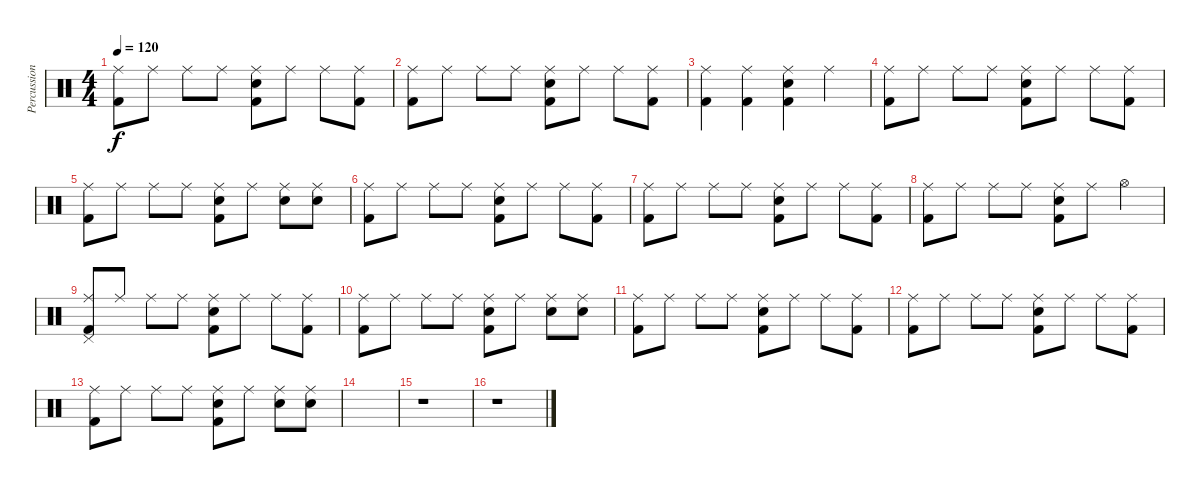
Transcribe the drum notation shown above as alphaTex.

\track ("Percussion" "Percussion") {instrument percussion}
\staff {score}
\articulation defaults
\ts (4 4)
\tempo 120
\clef neutral
\ks c
("Ride (middle)" "Kick (hit) 2").8{dy f} "Ride (middle)".8 "Ride (middle)".8 "Ride (middle)".8 ("Ride (middle)" "Snare (hit) 2" "Kick (hit) 2").8 "Ride (middle)".8 "Ride (middle)".8 ("Ride (middle)" "Kick (hit) 2").8 |
("Ride (middle)" "Kick (hit) 2").8 "Ride (middle)".8 "Ride (middle)".8 "Ride (middle)".8 ("Ride (middle)" "Snare (hit) 2" "Kick (hit) 2").8 "Ride (middle)".8 "Ride (middle)".8 ("Ride (middle)" "Kick (hit) 2").8 |
("Ride (middle)" "Kick (hit) 2").4 ("Ride (middle)" "Kick (hit) 2").4 ("Ride (middle)" "Snare (hit) 2" "Kick (hit) 2").4 "Ride (middle)".4 |
("Ride (middle)" "Kick (hit) 2").8 "Ride (middle)".8 "Ride (middle)".8 "Ride (middle)".8 ("Ride (middle)" "Snare (hit) 2" "Kick (hit) 2").8 "Ride (middle)".8 "Ride (middle)".8 ("Ride (middle)" "Kick (hit) 2").8 |
("Ride (middle)" "Kick (hit) 2").8 "Ride (middle)".8 "Ride (middle)".8 "Ride (middle)".8 ("Ride (middle)" "Snare (hit) 2" "Kick (hit) 2").8 "Ride (middle)".8 ("Ride (middle)" "Snare (hit) 2").8 ("Ride (middle)" "Snare (hit) 2").8 |
("Ride (middle)" "Kick (hit) 2").8 "Ride (middle)".8 "Ride (middle)".8 "Ride (middle)".8 ("Ride (middle)" "Snare (hit) 2" "Kick (hit) 2").8 "Ride (middle)".8 "Ride (middle)".8 ("Ride (middle)" "Kick (hit) 2").8 |
("Ride (middle)" "Kick (hit) 2").8 "Ride (middle)".8 "Ride (middle)".8 "Ride (middle)".8 ("Ride (middle)" "Snare (hit) 2" "Kick (hit) 2").8 "Ride (middle)".8 "Ride (middle)".8 ("Ride (middle)" "Kick (hit) 2").8 |
("Ride (middle)" "Kick (hit) 2").8 "Ride (middle)".8 "Ride (middle)".8 "Ride (middle)".8 ("Ride (middle)" "Snare (hit) 2" "Kick (hit) 2").8 "Ride (middle)".8 "Hi-Hat (open)".4 |
("Ride (middle)" "Pedal Hi-Hat (hit)" "Kick (hit) 2").8 "Ride (middle)".8 "Ride (middle)".8 "Ride (middle)".8 ("Ride (middle)" "Snare (hit) 2" "Kick (hit) 2").8 "Ride (middle)".8 "Ride (middle)".8 ("Ride (middle)" "Kick (hit) 2").8 |
("Ride (middle)" "Kick (hit) 2").8 "Ride (middle)".8 "Ride (middle)".8 "Ride (middle)".8 ("Ride (middle)" "Snare (hit) 2" "Kick (hit) 2").8 "Ride (middle)".8 ("Ride (middle)" "Snare (hit) 2").8 ("Ride (middle)" "Snare (hit) 2").8 |
("Ride (middle)" "Kick (hit) 2").8 "Ride (middle)".8 "Ride (middle)".8 "Ride (middle)".8 ("Ride (middle)" "Snare (hit) 2" "Kick (hit) 2").8 "Ride (middle)".8 "Ride (middle)".8 ("Ride (middle)" "Kick (hit) 2").8 |
("Ride (middle)" "Kick (hit) 2").8 "Ride (middle)".8 "Ride (middle)".8 "Ride (middle)".8 ("Ride (middle)" "Snare (hit) 2" "Kick (hit) 2").8 "Ride (middle)".8 "Ride (middle)".8 ("Ride (middle)" "Kick (hit) 2").8 |
("Ride (middle)" "Kick (hit) 2").8 "Ride (middle)".8 "Ride (middle)".8 "Ride (middle)".8 ("Ride (middle)" "Snare (hit) 2" "Kick (hit) 2").8 "Ride (middle)".8 ("Ride (middle)" "Snare (hit) 2").8 ("Ride (middle)" "Snare (hit) 2").8 |
|
r.1 |
r.1
